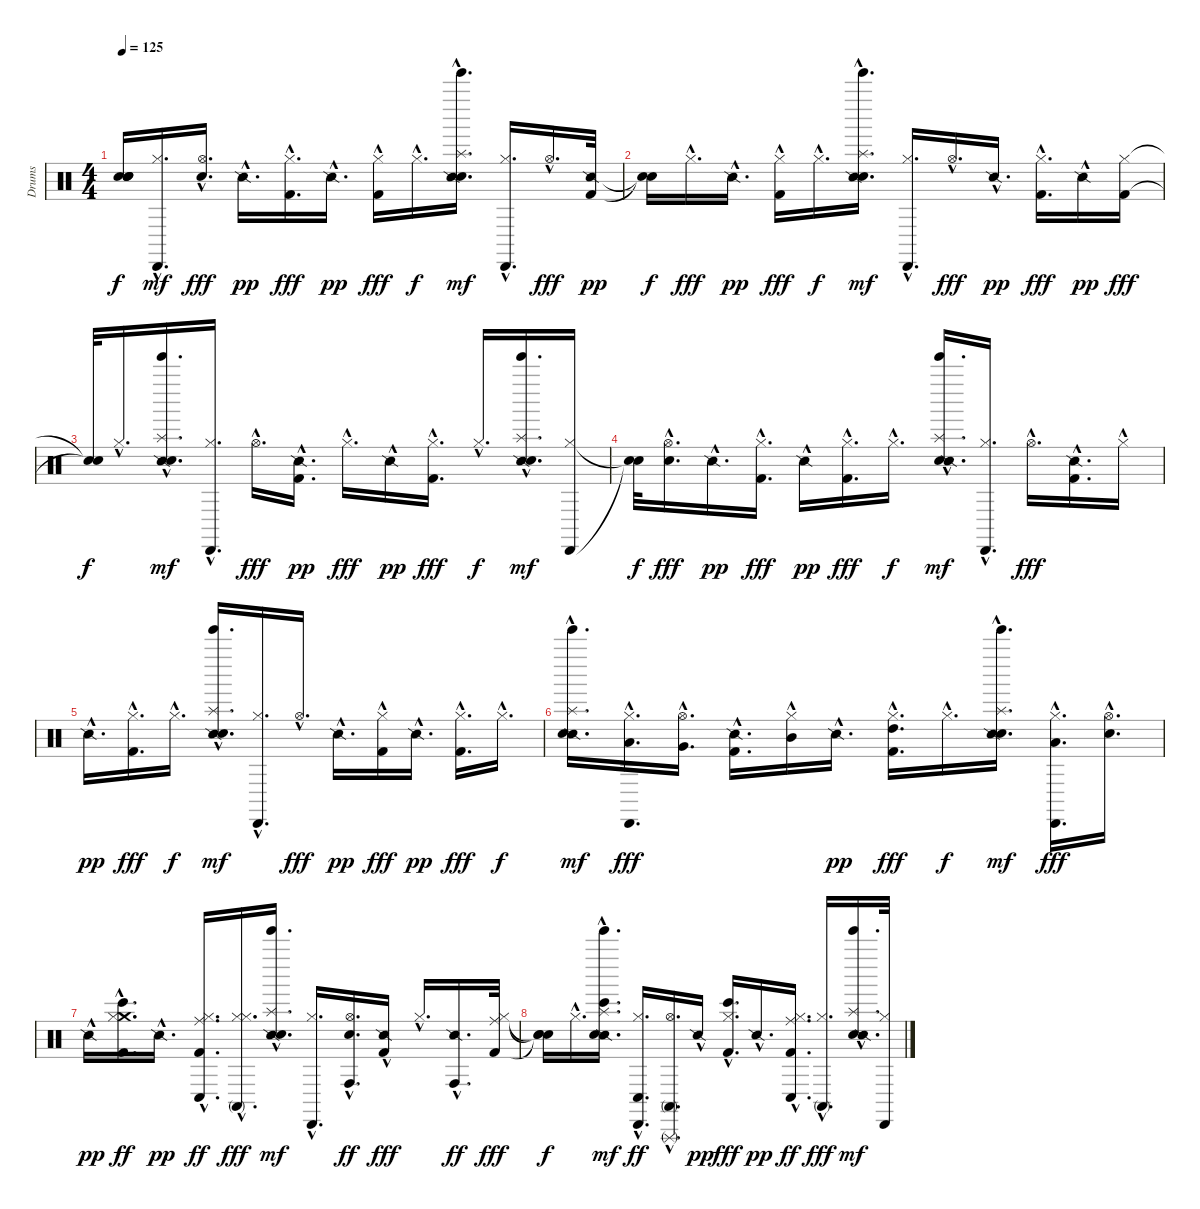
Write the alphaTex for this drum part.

\track ("Drums" "Drums") {instrument percussion}
\staff {score}
\articulation defaults
\ts (4 4)
\tempo 125
\clef neutral
\ks c
("Snare (hit)"{t} "Snare (hit)"{t} "Snare (hit)"{t} "Snare (hit)"{t}).16{dy f} ("Hi-Hat (closed)"{hac} "Cabasa (hit)"{hac}).16{d dy mf} ("Hi-Hat (open)"{hac} "Hand Clap (hit)"{hac}).16{d dy fff} "Snare (side stick) 2"{hac}.16{d dy pp} ("Hi-Hat (closed)"{hac} "Kick (hit) 2"{hac}).16{d dy fff} "Snare (side stick) 2"{hac}.16{d dy pp} ("Hi-Hat (closed)"{hac} "Kick (hit) 2"{hac}).16{dy fff} "Hi-Hat (closed)"{hac}.16{d dy f} ("Hand Clap (hit)"{hac} "Snare (side stick) 2"{hac} "Tinkle Bell (hit)"{hac} "Splash (hit)"{hac}).16{d dy mf} ("Cabasa (hit)"{hac} "Hi-Hat (closed)"{hac}).16{d} "Hi-Hat (open)"{hac}.16{d dy fff} ("Kick (hit) 2" "Snare (side stick) 2").32{dy pp} |
("Snare (hit)"{t} "Snare (hit)"{t}).16{dy f} "Hi-Hat (closed)"{hac}.16{d dy fff} "Snare (side stick) 2"{hac}.16{d dy pp} ("Hi-Hat (closed)"{hac} "Kick (hit) 2"{hac}).16{dy fff} "Hi-Hat (closed)"{hac}.16{d dy f} ("Hand Clap (hit)"{hac} "Snare (side stick) 2"{hac} "Tinkle Bell (hit)"{hac} "Splash (hit)"{hac}).16{d dy mf} ("Hi-Hat (closed)"{hac} "Cabasa (hit)"{hac}).16{d} "Hi-Hat (open)"{hac}.16{d dy fff} "Snare (side stick) 2"{hac}.16{d dy pp} ("Hi-Hat (closed)"{hac} "Kick (hit) 2"{hac}).16{d dy fff} "Snare (side stick) 2"{hac}.16{dy pp} ("Kick (hit) 2" "Hi-Hat (closed)").16{dy fff} |
("Snare (hit)"{t} "Snare (hit)"{t}).32{dy f} "Hi-Hat (closed)"{hac}.16{d} ("Snare (side stick) 2"{hac} "Hand Clap (hit)"{hac} "Tinkle Bell (hit)"{hac} "Splash (hit)"{hac}).16{d dy mf} ("Cabasa (hit)"{hac} "Hi-Hat (closed)"{hac}).16{d} "Hi-Hat (open)"{hac}.16{d dy fff} ("Kick (hit) 2"{hac} "Snare (side stick) 2"{hac}).16{d dy pp} "Hi-Hat (closed)"{hac}.16{d dy fff} "Snare (side stick) 2"{hac}.16{dy pp} ("Kick (hit) 2"{hac} "Hi-Hat (closed)"{hac}).16{d dy fff} "Hi-Hat (closed)"{hac}.16{d dy f} ("Snare (side stick) 2"{hac} "Hand Clap (hit)"{hac} "Tinkle Bell (hit)"{hac} "Splash (hit)"{hac}).16{d dy mf} ("Hi-Hat (closed)" "Cabasa (hit)").16 |
("Snare (hit)"{t} "Snare (hit)"{t}).32{dy f} ("Hand Clap (hit)"{hac} "Hi-Hat (open)"{hac}).16{d dy fff} "Snare (side stick) 2"{hac}.16{d dy pp} ("Kick (hit) 2"{hac} "Hi-Hat (closed)"{hac}).16{d dy fff} "Snare (side stick) 2"{hac}.16{dy pp} ("Kick (hit) 2"{hac} "Hi-Hat (closed)"{hac}).16{d dy fff} "Hi-Hat (closed)"{hac}.16{d dy f} ("Hand Clap (hit)"{hac} "Snare (side stick) 2"{hac} "Tinkle Bell (hit)"{hac} "Splash (hit)"{hac}).16{d dy mf} ("Hi-Hat (closed)"{hac} "Cabasa (hit)"{hac}).16{d} "Hi-Hat (open)"{hac}.16{d dy fff} ("Snare (side stick) 2"{hac} "Kick (hit) 2"{hac}).16{d} "Hi-Hat (closed)"{hac}.16 |
"Snare (side stick) 2"{hac}.16{d dy pp} ("Hi-Hat (closed)"{hac} "Kick (hit) 2"{hac}).16{d dy fff} "Hi-Hat (closed)"{hac}.16{d dy f} ("Snare (side stick) 2"{hac} "Hand Clap (hit)"{hac} "Tinkle Bell (hit)"{hac} "Splash (hit)"{hac}).16{d dy mf} ("Hi-Hat (closed)"{hac} "Cabasa (hit)"{hac}).16{d} "Hi-Hat (open)"{hac}.16{d dy fff} "Snare (side stick) 2"{hac}.16{d dy pp} ("Kick (hit) 2"{hac} "Hi-Hat (closed)"{hac}).16{dy fff} "Snare (side stick) 2"{hac}.16{d dy pp} ("Hi-Hat (closed)"{hac} "Kick (hit) 2"{hac}).16{d dy fff} "Hi-Hat (closed)"{hac}.16{d dy f} |
("Snare (side stick) 2"{hac} "Hand Clap (hit)"{hac} "Tinkle Bell (hit)"{hac} "Splash (hit)"{hac}).16{d dy mf} ("Cabasa (hit)"{hac} "Hi-Hat (closed)"{hac} "Low Tom (hit)"{hac}).16{d dy fff} ("Very Low Tom (hit)"{hac} "Hi-Hat (open)"{hac}).16{d} ("Snare (side stick) 2"{hac} "Kick (hit) 2"{hac}).16{d} ("Mid Tom (hit)"{hac} "Hi-Hat (closed)"{hac}).16 "Snare (side stick) 2"{hac}.16{d dy pp} ("High Tom (hit)"{hac} "Kick (hit) 2"{hac} "Hi-Hat (closed)"{hac}).16{d dy fff} "Hi-Hat (closed)"{hac}.16{d dy f} ("Hand Clap (hit)"{hac} "Snare (side stick) 2"{hac} "Tinkle Bell (hit)"{hac} "Splash (hit)"{hac}).16{d dy mf} ("Hi-Hat (closed)"{hac} "Cabasa (hit)"{hac} "Low Tom (hit)"{hac}).16{d dy fff} ("Hi-Hat (open)"{hac} "Hand Clap (hit)"{hac}).16{d} |
"Snare (side stick) 2"{hac}.16{dy pp} ("Crash medium (hit)"{hac} "Kick (hit) 2"{hac} "Hi-Hat (closed)"{hac} "Bongo High (hit)"{hac}).16{d dy ff} "Snare (side stick) 2"{hac}.16{d dy pp} ("Ride (middle)"{hac} "Hi-Hat (closed)"{hac} "Kick (hit) 2"{hac} "Conga low (hit)"{hac}).16{d dy ff} ("Hi-Hat (closed)"{hac} "Hi-Hat (closed)"{hac} "Conga high (mute)"{hac}).16{d dy fff} ("Snare (side stick) 2"{hac} "Hand Clap (hit)"{hac} "Tinkle Bell (hit)"{hac} "Splash (hit)"{hac}).16{d dy mf} ("Hi-Hat (closed)"{hac} "Cabasa (hit)"{hac}).16{d} ("Hand Clap (hit)"{hac} "Hi-Hat (open)"{hac} "Conga high (hit)"{hac}).16{d dy ff} ("Snare (side stick) 2"{hac} "Kick (hit) 2"{hac}).16{dy fff} "Hi-Hat (closed)"{hac}.16{d} ("Snare (side stick) 2"{hac} "Conga high (hit)"{hac}).16{d dy ff} ("Kick (hit) 2" "Hi-Hat (closed)" "Ride (middle)").32{dy fff} |
("Snare (hit)"{t} "Snare (hit)"{t} "Snare (hit)"{t}).16{dy f} "Hi-Hat (closed)"{hac}.16{d} ("Snare (side stick) 2"{hac} "Hand Clap (hit)"{hac} "Bongo High (hit)"{hac} "Tinkle Bell (hit)"{hac} "Splash (hit)"{hac}).16{d dy mf} ("Hi-Hat (closed)"{hac} "Cabasa (hit)"{hac} "Conga low (hit)"{hac}).16{d dy ff} ("Hi-Hat (open)"{hac} "Conga high (mute)"{hac} "Triangle (rnute)"{hac}).16{d} "Snare (side stick) 2"{hac}.16{dy pp} ("Kick (hit) 2"{hac} "Bongo High (hit)"{hac} "Hi-Hat (closed)"{hac}).16{d dy fff} "Snare (side stick) 2"{hac}.16{d dy pp} ("Kick (hit) 2"{hac} "Ride (middle)"{hac} "Hi-Hat (closed)"{hac} "Conga low (hit)"{hac}).16{d dy ff} ("Hi-Hat (closed)"{hac} "Conga high (mute)"{hac}).16{d dy fff} ("Hand Clap (hit)"{hac} "Snare (side stick) 2"{hac} "Tinkle Bell (hit)"{hac} "Splash (hit)"{hac}).16{d dy mf} ("Hi-Hat (closed)" "Cabasa (hit)").32
